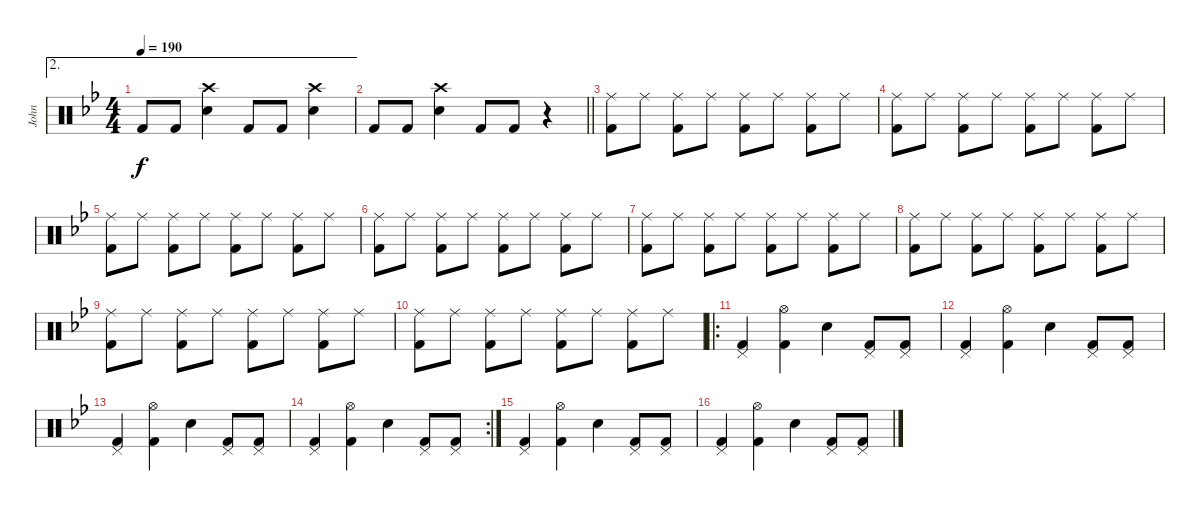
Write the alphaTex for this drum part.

\track ("John" "John") {instrument percussion}
\staff {score}
\articulation defaults
\ae 2
\ts (4 4)
\tempo 190
\clef neutral
\ks bb "Kick (hit) 2".8{dy f} "Kick (hit) 2".8
("Crash high (hit)" "Electric Snare (hit)").4 "Kick (hit) 2".8 "Kick (hit) 2".8 ("Crash high (hit)" "Electric Snare (hit)").4 |
\barLineRight lightlight "Kick (hit) 2".8 "Kick (hit) 2".8
("Crash high (hit)" "Electric Snare (hit)").4 "Kick (hit) 2".8 "Kick (hit) 2".8 r.4 |
("Ride (middle)" "Kick (hit) 2").8 "Ride (middle)".8 ("Ride (middle)" "Kick (hit) 2").8 "Ride (middle)".8 ("Ride (middle)" "Kick (hit) 2").8 "Ride (middle)".8 ("Ride (middle)" "Kick (hit) 2").8 "Ride (middle)".8 |
("Ride (middle)" "Kick (hit) 2").8 "Ride (middle)".8 ("Ride (middle)" "Kick (hit) 2").8 "Ride (middle)".8 ("Ride (middle)" "Kick (hit) 2").8 "Ride (middle)".8 ("Ride (middle)" "Kick (hit) 2").8 "Ride (middle)".8 |
("Ride (middle)" "Kick (hit) 2").8 "Ride (middle)".8 ("Ride (middle)" "Kick (hit) 2").8 "Ride (middle)".8 ("Ride (middle)" "Kick (hit) 2").8 "Ride (middle)".8 ("Ride (middle)" "Kick (hit) 2").8 "Ride (middle)".8 |
("Ride (middle)" "Kick (hit) 2").8 "Ride (middle)".8 ("Ride (middle)" "Kick (hit) 2").8 "Ride (middle)".8 ("Ride (middle)" "Kick (hit) 2").8 "Ride (middle)".8 ("Ride (middle)" "Kick (hit) 2").8 "Ride (middle)".8 |
("Ride (middle)" "Kick (hit) 2").8 "Ride (middle)".8 ("Ride (middle)" "Kick (hit) 2").8 "Ride (middle)".8 ("Ride (middle)" "Kick (hit) 2").8 "Ride (middle)".8 ("Ride (middle)" "Kick (hit) 2").8 "Ride (middle)".8 |
("Ride (middle)" "Kick (hit) 2").8 "Ride (middle)".8 ("Ride (middle)" "Kick (hit) 2").8 "Ride (middle)".8 ("Ride (middle)" "Kick (hit) 2").8 "Ride (middle)".8 ("Ride (middle)" "Kick (hit) 2").8 "Ride (middle)".8 |
("Ride (middle)" "Kick (hit) 2").8 "Ride (middle)".8 ("Ride (middle)" "Kick (hit) 2").8 "Ride (middle)".8 ("Ride (middle)" "Kick (hit) 2").8 "Ride (middle)".8 ("Ride (middle)" "Kick (hit) 2").8 "Ride (middle)".8 |
("Ride (middle)" "Kick (hit) 2").8 "Ride (middle)".8 ("Ride (middle)" "Kick (hit) 2").8 "Ride (middle)".8 ("Ride (middle)" "Kick (hit) 2").8 "Ride (middle)".8 ("Ride (middle)" "Kick (hit) 2").8 "Ride (middle)".8 |
\ro
("Pedal Hi-Hat (hit)" "Kick (hit) 2").4 ("Hi-Hat (open)" "Kick (hit) 2").4 "Electric Snare (hit)".4 ("Pedal Hi-Hat (hit)" "Kick (hit) 2").8 ("Pedal Hi-Hat (hit)" "Kick (hit) 2").8 |
("Pedal Hi-Hat (hit)" "Kick (hit) 2").4 ("Hi-Hat (open)" "Kick (hit) 2").4 "Electric Snare (hit)".4 ("Pedal Hi-Hat (hit)" "Kick (hit) 2").8 ("Pedal Hi-Hat (hit)" "Kick (hit) 2").8 |
("Pedal Hi-Hat (hit)" "Kick (hit) 2").4 ("Hi-Hat (open)" "Kick (hit) 2").4 "Electric Snare (hit)".4 ("Pedal Hi-Hat (hit)" "Kick (hit) 2").8 ("Pedal Hi-Hat (hit)" "Kick (hit) 2").8 |
\rc 2
("Pedal Hi-Hat (hit)" "Kick (hit) 2").4 ("Hi-Hat (open)" "Kick (hit) 2").4 "Electric Snare (hit)".4 ("Pedal Hi-Hat (hit)" "Kick (hit) 2").8 ("Pedal Hi-Hat (hit)" "Kick (hit) 2").8 |
("Pedal Hi-Hat (hit)" "Kick (hit) 2").4 ("Hi-Hat (open)" "Kick (hit) 2").4 "Electric Snare (hit)".4 ("Pedal Hi-Hat (hit)" "Kick (hit) 2").8 ("Pedal Hi-Hat (hit)" "Kick (hit) 2").8 |
("Pedal Hi-Hat (hit)" "Kick (hit) 2").4 ("Hi-Hat (open)" "Kick (hit) 2").4 "Electric Snare (hit)".4 ("Pedal Hi-Hat (hit)" "Kick (hit) 2").8 ("Pedal Hi-Hat (hit)" "Kick (hit) 2").8
